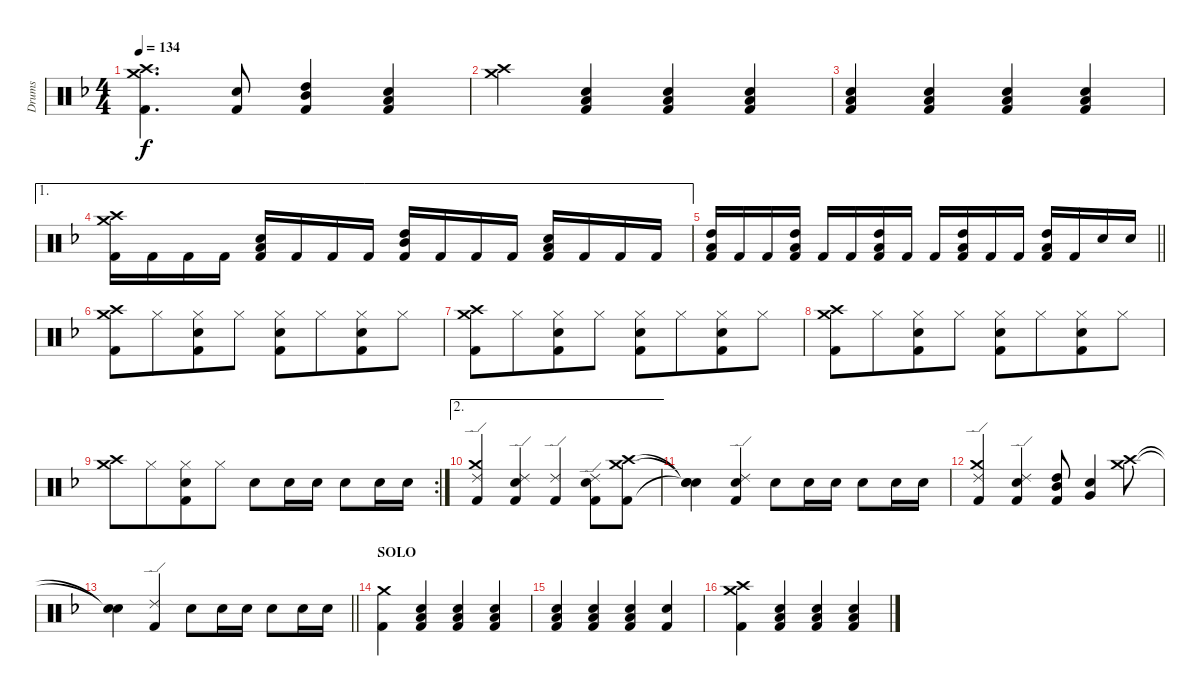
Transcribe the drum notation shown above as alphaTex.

\track ("Drums" "Drums") {instrument percussion}
\staff {score}
\articulation defaults
\ts (4 4)
\tempo 134
\clef neutral
\ks f
("Kick (hit) 2" "Crash medium (hit)" "Crash high (hit)").4{d dy f} ("Snare (hit) 2" "Kick (hit) 2").8 ("High Tom (hit)" "Kick (hit) 2" "Mid Tom (hit)").4 ("Snare (hit) 2" "Kick (hit) 2" "Low Tom (hit)").4 |
("Crash medium (hit)" "Crash high (hit)").4 ("Low Tom (hit)" "Kick (hit) 2" "Snare (hit) 2").4 ("Low Tom (hit)" "Kick (hit) 2" "Snare (hit) 2").4 ("Low Tom (hit)" "Kick (hit) 2" "Snare (hit) 2").4 |
("Low Tom (hit)" "Kick (hit) 2" "Snare (hit) 2").4 ("Low Tom (hit)" "Kick (hit) 2" "Snare (hit) 2").4 ("Low Tom (hit)" "Kick (hit) 2" "Snare (hit) 2").4 ("Low Tom (hit)" "Kick (hit) 2" "Snare (hit) 2").4 |
\ae 1
("Crash high (hit)" "Crash medium (hit)" "Kick (hit) 2").16 "Kick (hit) 2".16 "Kick (hit) 2".16 "Kick (hit) 2".16 ("Kick (hit) 2" "Snare (hit) 2" "Low Tom (hit)").16 "Kick (hit) 2".16 "Kick (hit) 2".16 "Kick (hit) 2".16 ("Kick (hit) 2" "High Tom (hit)" "Mid Tom (hit)").16 "Kick (hit) 2".16 "Kick (hit) 2".16 "Kick (hit) 2".16 ("Kick (hit) 2" "Low Tom (hit)" "Snare (hit) 2").16 "Kick (hit) 2".16 "Kick (hit) 2".16 "Kick (hit) 2".16 |
\barLineRight lightlight
("Low Tom (hit)" "High Tom (hit)" "Kick (hit) 2").16 "Kick (hit) 2".16 "Kick (hit) 2".16 ("High Tom (hit)" "Low Tom (hit)" "Kick (hit) 2").16 "Kick (hit) 2".16 "Kick (hit) 2".16 ("High Tom (hit)" "Low Tom (hit)" "Kick (hit) 2").16 "Kick (hit) 2".16 "Kick (hit) 2".16 ("High Tom (hit)" "Low Tom (hit)" "Kick (hit) 2").16 "Kick (hit) 2".16 "Kick (hit) 2".16 ("High Tom (hit)" "Low Tom (hit)" "Kick (hit) 2").16 "Kick (hit) 2".16 "Snare (hit) 2".16 "Snare (hit) 2".16 |
("Kick (hit) 2" "Crash medium (hit)" "Crash high (hit)").8 "Hi-Hat (closed)".8{beam merge} ("Hi-Hat (closed)" "Kick (hit) 2" "Snare (hit) 2").8 "Hi-Hat (closed)".8 ("Hi-Hat (closed)" "Kick (hit) 2" "Snare (hit) 2").8 "Hi-Hat (closed)".8{beam merge} ("Hi-Hat (closed)" "Kick (hit) 2" "Snare (hit) 2").8 "Hi-Hat (closed)".8 |
("Crash high (hit)" "Crash medium (hit)" "Kick (hit) 2").8 "Hi-Hat (closed)".8{beam merge} ("Hi-Hat (closed)" "Kick (hit) 2" "Snare (hit) 2").8 "Hi-Hat (closed)".8 ("Hi-Hat (closed)" "Kick (hit) 2" "Snare (hit) 2").8 "Hi-Hat (closed)".8{beam merge} ("Hi-Hat (closed)" "Kick (hit) 2" "Snare (hit) 2").8 "Hi-Hat (closed)".8 |
("Crash high (hit)" "Crash medium (hit)" "Kick (hit) 2").8 "Hi-Hat (closed)".8{beam merge} ("Hi-Hat (closed)" "Kick (hit) 2" "Snare (hit) 2").8 "Hi-Hat (closed)".8 ("Hi-Hat (closed)" "Kick (hit) 2" "Snare (hit) 2").8 "Hi-Hat (closed)".8{beam merge} ("Hi-Hat (closed)" "Kick (hit) 2" "Snare (hit) 2").8 "Hi-Hat (closed)".8 |
\rc 2
("Crash medium (hit)" "Crash high (hit)").8 "Hi-Hat (closed)".8{beam merge} ("Hi-Hat (closed)" "Kick (hit) 2" "Snare (hit) 2").8 "Hi-Hat (closed)".8 "Snare (hit) 2".8 "Snare (hit) 2".16 "Snare (hit) 2".16 "Snare (hit) 2".8 "Snare (hit) 2".16 "Snare (hit) 2".16 |
\ae 2
("Ride (edge) 2" "Crash medium (hit)" "Kick (hit) 2").4 ("Ride (edge) 2" "Snare (hit) 2" "Kick (hit) 2").4 ("Ride (edge) 2" "Kick (hit) 2").4 ("Ride (edge) 2" "Snare (hit) 2" "Kick (hit) 2").8 ("Crash high (hit)" "Crash medium (hit)" "Kick (hit) 2").8 |
("Snare (hit)"{t} "Snare (hit)"{t} "Snare (hit)"{t}).4 ("Ride (edge) 2" "Snare (hit) 2" "Kick (hit) 2").4 "Snare (hit) 2".8 "Snare (hit) 2".16 "Snare (hit) 2".16 "Snare (hit) 2".8 "Snare (hit) 2".16 "Snare (hit) 2".16 |
("Ride (edge) 2" "Kick (hit) 2" "Crash medium (hit)").4 ("Ride (edge) 2" "Kick (hit) 2" "Snare (hit) 2").4 ("High Tom (hit)" "Mid Tom (hit)" "Kick (hit) 2").8 ("Very Low Tom (hit)" "Snare (hit) 2").4 ("Crash high (hit)" "Crash medium (hit)").8 |
\barLineRight lightlight
("Snare (hit)"{t} "Snare (hit)"{t}).4 ("Ride (edge) 2" "Kick (hit) 2").4 "Snare (hit) 2".8 "Snare (hit) 2".16 "Snare (hit) 2".16 "Snare (hit) 2".8 "Snare (hit) 2".16 "Snare (hit) 2".16 |
\section ("" "SOLO")
("Crash medium (hit)" "Kick (hit) 2").4 ("Low Tom (hit)" "Kick (hit) 2" "Snare (hit) 2").4 ("Low Tom (hit)" "Kick (hit) 2" "Snare (hit) 2").4 ("Low Tom (hit)" "Kick (hit) 2" "Snare (hit) 2").4 |
("Low Tom (hit)" "Kick (hit) 2" "Snare (hit) 2").4 ("Low Tom (hit)" "Kick (hit) 2" "Snare (hit) 2").4 ("Low Tom (hit)" "Kick (hit) 2" "Snare (hit) 2").4 ("Kick (hit) 2" "Snare (hit) 2").4 |
("Crash medium (hit)" "Kick (hit) 2" "Crash high (hit)").4 ("Low Tom (hit)" "Kick (hit) 2" "Snare (hit) 2").4 ("Low Tom (hit)" "Kick (hit) 2" "Snare (hit) 2").4 ("Low Tom (hit)" "Kick (hit) 2" "Snare (hit) 2").4
